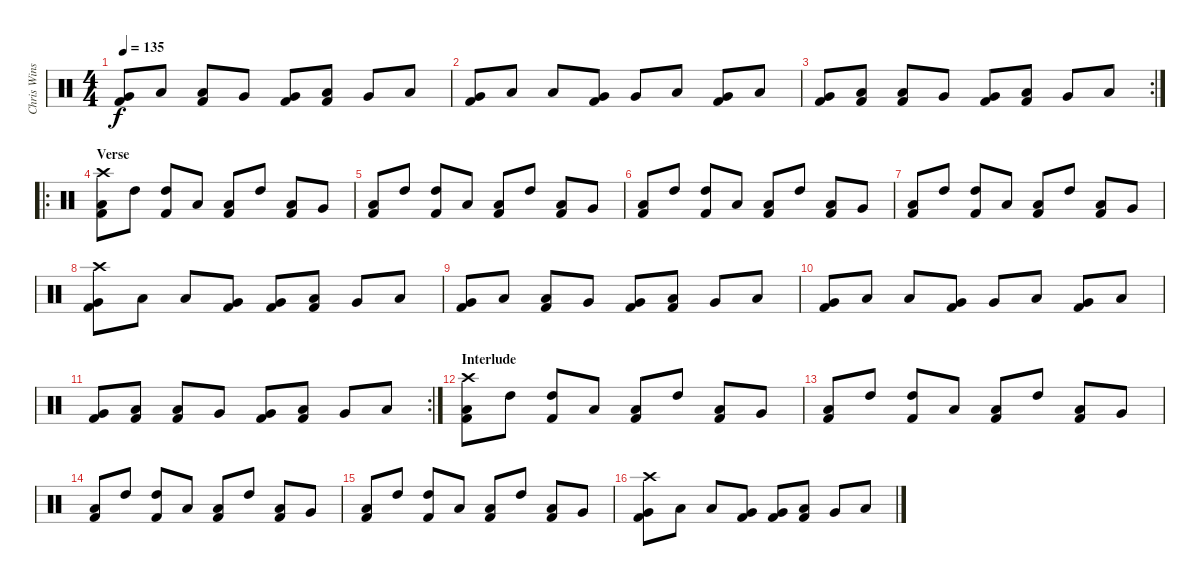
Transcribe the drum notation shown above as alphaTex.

\track ("Chris Winship (Drums)" "Chris Wins") {instrument percussion}
\staff {score}
\articulation defaults
\ts (4 4)
\tempo 135
\clef neutral
\ks c
("Very Low Tom (hit)" "Kick (hit) 2").8{dy f} "Low Tom (hit)".8 ("Low Tom (hit)" "Kick (hit) 2").8 "Very Low Tom (hit)".8 ("Very Low Tom (hit)" "Kick (hit) 2").8 ("Low Tom (hit)" "Kick (hit) 2").8 "Very Low Tom (hit)".8 "Low Floor Tom (hit)".8 |
("Very Low Tom (hit)" "Kick (hit) 2").8 "Low Tom (hit)".8 "Low Tom (hit)".8 ("Very Low Tom (hit)" "Kick (hit) 2").8 "Very Low Tom (hit)".8 "Low Tom (hit)".8 ("Very Low Tom (hit)" "Kick (hit) 2").8 "Low Floor Tom (hit)".8 |
\rc 2
("Very Low Tom (hit)" "Kick (hit) 2").8 ("Low Tom (hit)" "Kick (hit) 2").8 ("Low Tom (hit)" "Kick (hit) 2").8 "Very Low Tom (hit)".8 ("Very Low Tom (hit)" "Kick (hit) 2").8 ("Low Tom (hit)" "Kick (hit) 2").8 "Very Low Tom (hit)".8 "Low Floor Tom (hit)".8 |
\ro
\section ("" "Verse")
("Crash high (hit)" "Low Tom (hit)" "Kick (hit) 2").8 "High Tom (hit)".8 ("High Tom (hit)" "Kick (hit) 2").8 "Low Tom (hit)".8 ("Low Tom (hit)" "Kick (hit) 2").8 "High Tom (hit)".8 ("Low Tom (hit)" "Kick (hit) 2").8 "Very Low Tom (hit)".8 |
("Low Tom (hit)" "Kick (hit) 2").8 "High Tom (hit)".8 ("High Tom (hit)" "Kick (hit) 2").8 "Low Tom (hit)".8 ("Low Tom (hit)" "Kick (hit) 2").8 "High Tom (hit)".8 ("Low Tom (hit)" "Kick (hit) 2").8 "Very Low Tom (hit)".8 |
("Low Tom (hit)" "Kick (hit) 2").8 "High Tom (hit)".8 ("High Tom (hit)" "Kick (hit) 2").8 "Low Tom (hit)".8 ("Low Tom (hit)" "Kick (hit) 2").8 "High Tom (hit)".8 ("Low Tom (hit)" "Kick (hit) 2").8 "Very Low Tom (hit)".8 |
("Low Tom (hit)" "Kick (hit) 2").8 "High Tom (hit)".8 ("High Tom (hit)" "Kick (hit) 2").8 "Low Tom (hit)".8 ("Low Tom (hit)" "Kick (hit) 2").8 "High Tom (hit)".8 ("Low Tom (hit)" "Kick (hit) 2").8 "Very Low Tom (hit)".8 |
("Crash high (hit)" "Very Low Tom (hit)" "Kick (hit) 2").8 "Low Tom (hit)".8 "Low Tom (hit)".8 ("Very Low Tom (hit)" "Kick (hit) 2").8 ("Very Low Tom (hit)" "Kick (hit) 2").8 ("Low Tom (hit)" "Kick (hit) 2").8 "Very Low Tom (hit)".8 "Low Floor Tom (hit)".8 |
("Very Low Tom (hit)" "Kick (hit) 2").8 "Low Tom (hit)".8 ("Low Tom (hit)" "Kick (hit) 2").8 "Very Low Tom (hit)".8 ("Very Low Tom (hit)" "Kick (hit) 2").8 ("Low Tom (hit)" "Kick (hit) 2").8 "Very Low Tom (hit)".8 "Low Floor Tom (hit)".8 |
("Very Low Tom (hit)" "Kick (hit) 2").8 "Low Tom (hit)".8 "Low Tom (hit)".8 ("Very Low Tom (hit)" "Kick (hit) 2").8 "Very Low Tom (hit)".8 "Low Tom (hit)".8 ("Very Low Tom (hit)" "Kick (hit) 2").8 "Low Floor Tom (hit)".8 |
\rc 2
("Very Low Tom (hit)" "Kick (hit) 2").8 ("Low Tom (hit)" "Kick (hit) 2").8 ("Low Tom (hit)" "Kick (hit) 2").8 "Very Low Tom (hit)".8 ("Very Low Tom (hit)" "Kick (hit) 2").8 ("Low Tom (hit)" "Kick (hit) 2").8 "Very Low Tom (hit)".8 "Low Floor Tom (hit)".8 |
\section ("" "Interlude")
("Crash high (hit)" "Low Tom (hit)" "Kick (hit) 2").8 "High Tom (hit)".8 ("High Tom (hit)" "Kick (hit) 2").8 "Low Tom (hit)".8 ("Low Tom (hit)" "Kick (hit) 2").8 "High Tom (hit)".8 ("Low Tom (hit)" "Kick (hit) 2").8 "Very Low Tom (hit)".8 |
("Low Tom (hit)" "Kick (hit) 2").8 "High Tom (hit)".8 ("High Tom (hit)" "Kick (hit) 2").8 "Low Tom (hit)".8 ("Low Tom (hit)" "Kick (hit) 2").8 "High Tom (hit)".8 ("Low Tom (hit)" "Kick (hit) 2").8 "Very Low Tom (hit)".8 |
("Low Tom (hit)" "Kick (hit) 2").8 "High Tom (hit)".8 ("High Tom (hit)" "Kick (hit) 2").8 "Low Tom (hit)".8 ("Low Tom (hit)" "Kick (hit) 2").8 "High Tom (hit)".8 ("Low Tom (hit)" "Kick (hit) 2").8 "Very Low Tom (hit)".8 |
("Low Tom (hit)" "Kick (hit) 2").8 "High Tom (hit)".8 ("High Tom (hit)" "Kick (hit) 2").8 "Low Tom (hit)".8 ("Low Tom (hit)" "Kick (hit) 2").8 "High Tom (hit)".8 ("Low Tom (hit)" "Kick (hit) 2").8 "Very Low Tom (hit)".8 |
("Crash high (hit)" "Very Low Tom (hit)" "Kick (hit) 2").8 "Low Tom (hit)".8 "Low Tom (hit)".8 ("Very Low Tom (hit)" "Kick (hit) 2").8 ("Very Low Tom (hit)" "Kick (hit) 2").8 ("Low Tom (hit)" "Kick (hit) 2").8 "Very Low Tom (hit)".8 "Low Floor Tom (hit)".8
